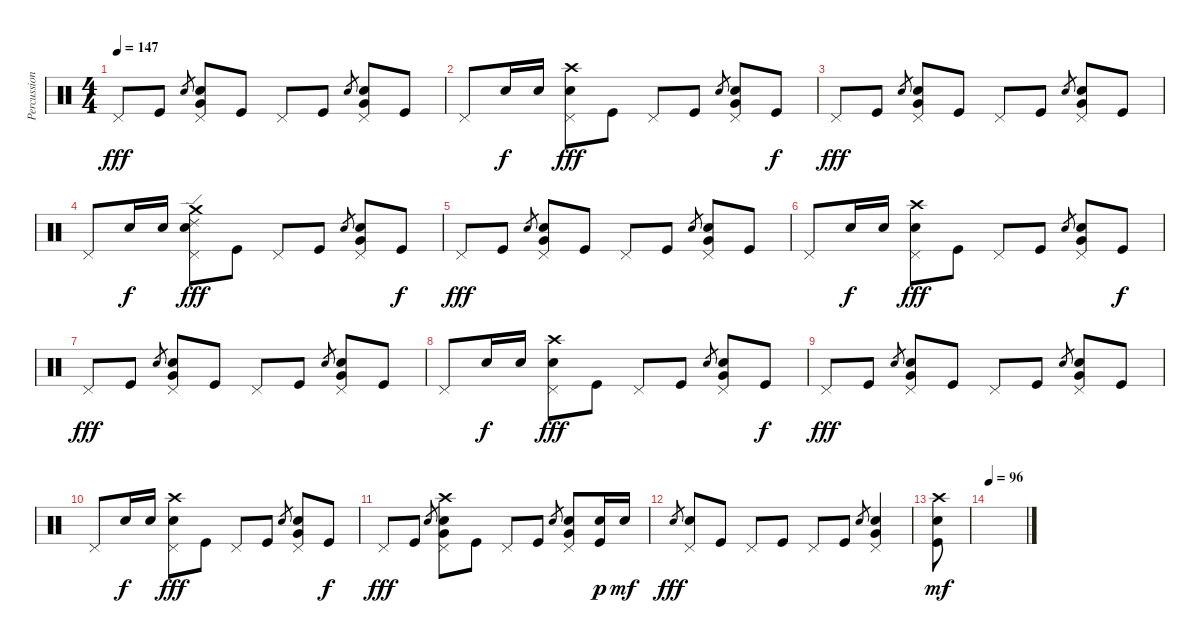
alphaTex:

\track ("Percussions" "Percussion") {instrument percussion}
\staff {score}
\articulation defaults
\ts (4 4)
\tempo 147
\clef neutral
\ks c "Pedal Hi-Hat (hit)".8{dy fff} "Kick (hit)".8 "Snare (hit) 2".8{gr}
("Pedal Hi-Hat (hit)" "Snare (hit) 2" "Very Low Tom (hit)").8 "Kick (hit)".8 "Pedal Hi-Hat (hit)".8 "Kick (hit)".8 "Snare (hit) 2".8{gr} ("Pedal Hi-Hat (hit)" "Snare (hit) 2" "Very Low Tom (hit)").8 "Kick (hit)".8 |
"Pedal Hi-Hat (hit)".8 "Snare (hit) 2".16{dy f} "Snare (hit) 2".16 ("Snare (hit) 2" "Pedal Hi-Hat (hit)" "Crash high (hit)").8{dy fff} "Kick (hit)".8 "Pedal Hi-Hat (hit)".8 "Kick (hit)".8 "Snare (hit) 2".8{gr} ("Pedal Hi-Hat (hit)" "Snare (hit) 2" "Very Low Tom (hit)").8 "Kick (hit)".8{dy f} |
"Pedal Hi-Hat (hit)".8{dy fff} "Kick (hit)".8 "Snare (hit) 2".8{gr} ("Pedal Hi-Hat (hit)" "Snare (hit) 2" "Very Low Tom (hit)").8 "Kick (hit)".8 "Pedal Hi-Hat (hit)".8 "Kick (hit)".8 "Snare (hit) 2".8{gr} ("Pedal Hi-Hat (hit)" "Snare (hit) 2" "Very Low Tom (hit)").8 "Kick (hit)".8 |
"Pedal Hi-Hat (hit)".8 "Snare (hit) 2".16{dy f} "Snare (hit) 2".16 ("Snare (hit) 2" "Pedal Hi-Hat (hit)" "Ride (edge) 2" "Crash medium (hit)").8{dy fff} "Kick (hit)".8 "Pedal Hi-Hat (hit)".8 "Kick (hit)".8 "Snare (hit) 2".8{gr} ("Pedal Hi-Hat (hit)" "Snare (hit) 2" "Very Low Tom (hit)").8 "Kick (hit)".8{dy f} |
"Pedal Hi-Hat (hit)".8{dy fff} "Kick (hit)".8 "Snare (hit) 2".8{gr} ("Pedal Hi-Hat (hit)" "Snare (hit) 2" "Very Low Tom (hit)").8 "Kick (hit)".8 "Pedal Hi-Hat (hit)".8 "Kick (hit)".8 "Snare (hit) 2".8{gr} ("Pedal Hi-Hat (hit)" "Snare (hit) 2" "Very Low Tom (hit)").8 "Kick (hit)".8 |
"Pedal Hi-Hat (hit)".8 "Snare (hit) 2".16{dy f} "Snare (hit) 2".16 ("Snare (hit) 2" "Pedal Hi-Hat (hit)" "Crash high (hit)").8{dy fff} "Kick (hit)".8 "Pedal Hi-Hat (hit)".8 "Kick (hit)".8 "Snare (hit) 2".8{gr} ("Pedal Hi-Hat (hit)" "Snare (hit) 2" "Very Low Tom (hit)").8 "Kick (hit)".8{dy f} |
"Pedal Hi-Hat (hit)".8{dy fff} "Kick (hit)".8 "Snare (hit) 2".8{gr} ("Pedal Hi-Hat (hit)" "Snare (hit) 2" "Very Low Tom (hit)").8 "Kick (hit)".8 "Pedal Hi-Hat (hit)".8 "Kick (hit)".8 "Snare (hit) 2".8{gr} ("Pedal Hi-Hat (hit)" "Snare (hit) 2" "Very Low Tom (hit)").8 "Kick (hit)".8 |
"Pedal Hi-Hat (hit)".8 "Snare (hit) 2".16{dy f} "Snare (hit) 2".16 ("Snare (hit) 2" "Pedal Hi-Hat (hit)" "Crash high (hit)").8{dy fff} "Kick (hit)".8 "Pedal Hi-Hat (hit)".8 "Kick (hit)".8 "Snare (hit) 2".8{gr} ("Pedal Hi-Hat (hit)" "Snare (hit) 2" "Very Low Tom (hit)").8 "Kick (hit)".8{dy f} |
"Pedal Hi-Hat (hit)".8{dy fff} "Kick (hit)".8 "Snare (hit) 2".8{gr} ("Pedal Hi-Hat (hit)" "Snare (hit) 2" "Very Low Tom (hit)").8 "Kick (hit)".8 "Pedal Hi-Hat (hit)".8 "Kick (hit)".8 "Snare (hit) 2".8{gr} ("Pedal Hi-Hat (hit)" "Snare (hit) 2" "Very Low Tom (hit)").8 "Kick (hit)".8 |
"Pedal Hi-Hat (hit)".8 "Snare (hit) 2".16{dy f} "Snare (hit) 2".16 ("Snare (hit) 2" "Pedal Hi-Hat (hit)" "Crash high (hit)").8{dy fff} "Kick (hit)".8 "Pedal Hi-Hat (hit)".8 "Kick (hit)".8 "Snare (hit) 2".8{gr} ("Pedal Hi-Hat (hit)" "Snare (hit) 2" "Very Low Tom (hit)").8 "Kick (hit)".8{dy f} |
"Pedal Hi-Hat (hit)".8{dy fff} "Kick (hit)".8 "Snare (hit) 2".8{gr} ("Pedal Hi-Hat (hit)" "Snare (hit) 2" "Very Low Tom (hit)" "Crash high (hit)").8 "Kick (hit)".8 "Pedal Hi-Hat (hit)".8 "Kick (hit)".8 "Snare (hit) 2".8{gr} ("Pedal Hi-Hat (hit)" "Snare (hit) 2" "Very Low Tom (hit)").8 ("Kick (hit)" "Snare (hit) 2").16{dy p} "Snare (hit) 2".16{dy mf} |
"Snare (hit) 2".8{gr dy fff} ("Pedal Hi-Hat (hit)" "Snare (hit) 2").8 "Kick (hit)".8 "Pedal Hi-Hat (hit)".8 "Kick (hit)".8 "Pedal Hi-Hat (hit)".8 "Kick (hit)".8 "Snare (hit) 2".8{gr} ("Pedal Hi-Hat (hit)" "Snare (hit) 2" "Very Low Tom (hit)").4 |
("Kick (hit)" "Snare (hit) 2" "Crash high (hit)").8{dy mf} |
\tempo 96
